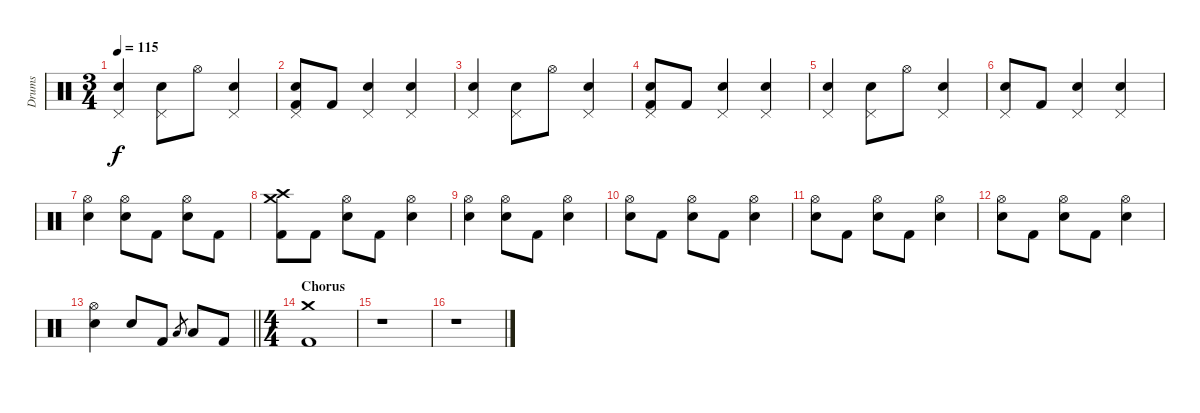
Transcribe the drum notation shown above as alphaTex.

\track ("Drums " "Drums ") {instrument percussion}
\staff {score}
\articulation defaults
\ts (3 4)
\tempo 115
\clef neutral
\ks c
("Pedal Hi-Hat (hit)" "Electric Snare (hit)").4{dy f} ("Pedal Hi-Hat (hit)" "Electric Snare (hit)").8 "Hi-Hat (open)".8 ("Pedal Hi-Hat (hit)" "Electric Snare (hit)").4 |
("Pedal Hi-Hat (hit)" "Electric Snare (hit)" "Kick (hit) 2").8 "Kick (hit) 2".8 ("Pedal Hi-Hat (hit)" "Electric Snare (hit)").4 ("Pedal Hi-Hat (hit)" "Electric Snare (hit)").4 |
("Pedal Hi-Hat (hit)" "Electric Snare (hit)").4 ("Pedal Hi-Hat (hit)" "Electric Snare (hit)").8 "Hi-Hat (open)".8 ("Pedal Hi-Hat (hit)" "Electric Snare (hit)").4 |
("Pedal Hi-Hat (hit)" "Electric Snare (hit)" "Kick (hit) 2").8 "Kick (hit) 2".8 ("Pedal Hi-Hat (hit)" "Electric Snare (hit)").4 ("Pedal Hi-Hat (hit)" "Electric Snare (hit)").4 |
("Pedal Hi-Hat (hit)" "Electric Snare (hit)").4 ("Pedal Hi-Hat (hit)" "Electric Snare (hit)").8 "Hi-Hat (open)".8 ("Pedal Hi-Hat (hit)" "Electric Snare (hit)").4 |
("Pedal Hi-Hat (hit)" "Electric Snare (hit)").8 "Kick (hit) 2".8 ("Pedal Hi-Hat (hit)" "Electric Snare (hit)").4 ("Pedal Hi-Hat (hit)" "Electric Snare (hit)").4 |
("Hi-Hat (open)" "Electric Snare (hit)").4 ("Hi-Hat (open)" "Electric Snare (hit)").8 "Kick (hit) 2".8 ("Hi-Hat (open)" "Electric Snare (hit)").8 "Kick (hit) 2".8 |
("Crash medium (hit)" "Crash high (hit)" "Kick (hit) 2").8 "Kick (hit) 2".8 ("Hi-Hat (open)" "Electric Snare (hit)").8 "Kick (hit) 2".8 ("Hi-Hat (open)" "Electric Snare (hit)").4 |
("Hi-Hat (open)" "Electric Snare (hit)").4 ("Hi-Hat (open)" "Electric Snare (hit)").8 "Kick (hit) 2".8 ("Hi-Hat (open)" "Electric Snare (hit)").4 |
("Hi-Hat (open)" "Electric Snare (hit)").8 "Kick (hit) 2".8 ("Hi-Hat (open)" "Electric Snare (hit)").8 "Kick (hit) 2".8 ("Hi-Hat (open)" "Electric Snare (hit)").4 |
("Hi-Hat (open)" "Electric Snare (hit)").8 "Kick (hit) 2".8 ("Hi-Hat (open)" "Electric Snare (hit)").8 "Kick (hit) 2".8 ("Hi-Hat (open)" "Electric Snare (hit)").4 |
("Hi-Hat (open)" "Electric Snare (hit)").8 "Kick (hit) 2".8 ("Hi-Hat (open)" "Electric Snare (hit)").8 "Kick (hit) 2".8 ("Hi-Hat (open)" "Electric Snare (hit)").4 |
\barLineRight lightlight
("Hi-Hat (open)" "Electric Snare (hit)").4 "Electric Snare (hit)".8 "Kick (hit) 2".8 "Low Tom (hit)".8{gr} "Low Tom (hit)".8 "Kick (hit) 2".8 |
\ts (4 4)
\section ("" "Chorus")
("Crash medium (hit)" "Kick (hit) 2").1 |
r.1 |
r.1
